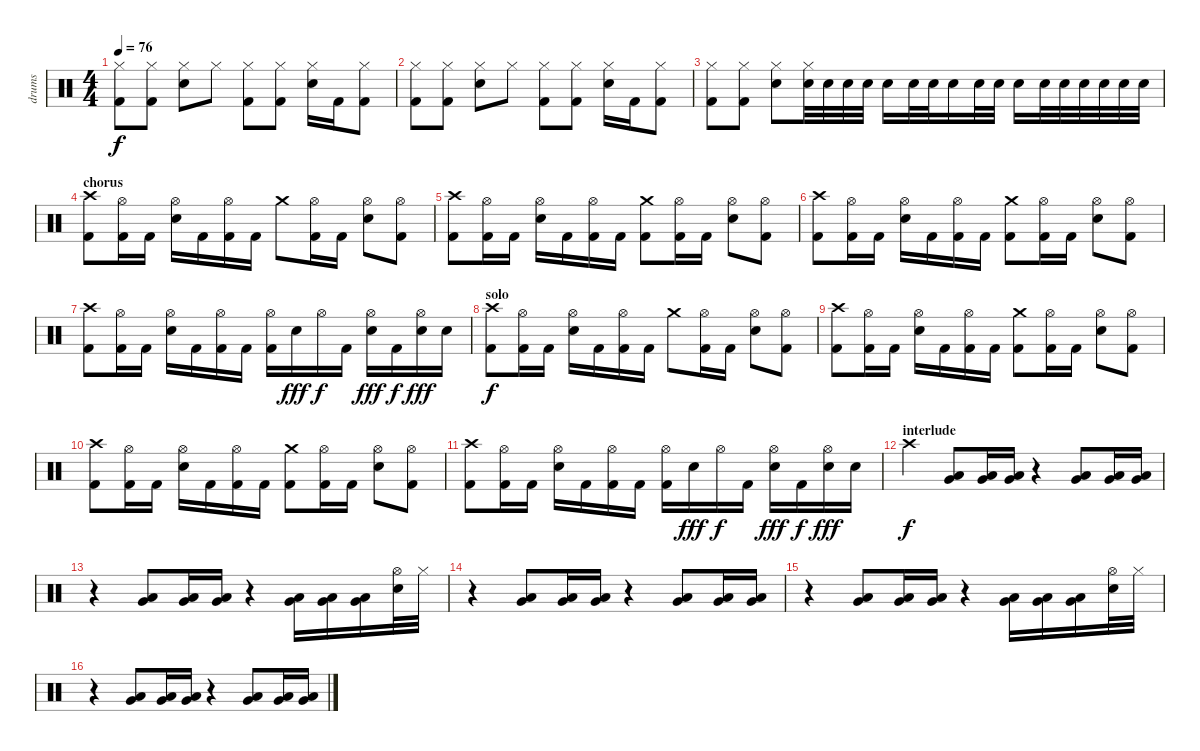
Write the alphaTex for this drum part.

\track ("drums" "drums") {instrument percussion}
\staff {score}
\articulation defaults
\ts (4 4)
\tempo 76
\clef neutral
\ks c
("Hi-Hat (closed)" "Kick (hit) 2").8{dy f} ("Hi-Hat (closed)" "Kick (hit) 2").8 ("Hi-Hat (closed)" "Electric Snare (hit)").8 "Hi-Hat (closed)".8 ("Hi-Hat (closed)" "Kick (hit) 2").8 ("Hi-Hat (closed)" "Kick (hit) 2").8 ("Hi-Hat (closed)" "Electric Snare (hit)").16 "Kick (hit) 2".16 ("Hi-Hat (closed)" "Kick (hit) 2").8 |
("Hi-Hat (closed)" "Kick (hit) 2").8 ("Hi-Hat (closed)" "Kick (hit) 2").8 ("Hi-Hat (closed)" "Electric Snare (hit)").8 "Hi-Hat (closed)".8 ("Hi-Hat (closed)" "Kick (hit) 2").8 ("Hi-Hat (closed)" "Kick (hit) 2").8 ("Hi-Hat (closed)" "Electric Snare (hit)").16 "Kick (hit) 2".16 ("Hi-Hat (closed)" "Kick (hit) 2").8 |
("Hi-Hat (closed)" "Kick (hit) 2").8 ("Hi-Hat (closed)" "Kick (hit) 2").8 ("Hi-Hat (closed)" "Electric Snare (hit)").8 ("Hi-Hat (closed)" "Electric Snare (hit)").32 "Electric Snare (hit)".32 "Electric Snare (hit)".32 "Electric Snare (hit)".32 "Electric Snare (hit)".16 "Electric Snare (hit)".32 "Electric Snare (hit)".32 "Electric Snare (hit)".16 "Electric Snare (hit)".32 "Electric Snare (hit)".32 "Electric Snare (hit)".16 "Electric Snare (hit)".32 "Electric Snare (hit)".32 "Electric Snare (hit)".32 "Electric Snare (hit)".32 "Electric Snare (hit)".32 "Electric Snare (hit)".32 |
\section ("" "chorus")
("Crash high (hit)" "Kick (hit) 2").8 ("Hi-Hat (open)" "Kick (hit) 2").16 "Kick (hit) 2".16 ("Hi-Hat (open)" "Electric Snare (hit)").16 "Kick (hit) 2".16 ("Hi-Hat (open)" "Kick (hit) 2").16 "Kick (hit) 2".16 "Crash medium (hit)".8 ("Hi-Hat (open)" "Kick (hit) 2").16 "Kick (hit) 2".16 ("Hi-Hat (open)" "Electric Snare (hit)").8 ("Hi-Hat (open)" "Kick (hit) 2").8 |
("Crash high (hit)" "Kick (hit) 2").8 ("Hi-Hat (open)" "Kick (hit) 2").16 "Kick (hit) 2".16 ("Hi-Hat (open)" "Electric Snare (hit)").16 "Kick (hit) 2".16 ("Hi-Hat (open)" "Kick (hit) 2").16 "Kick (hit) 2".16 ("Crash medium (hit)" "Kick (hit) 2").8 ("Hi-Hat (open)" "Kick (hit) 2").16 "Kick (hit) 2".16 ("Hi-Hat (open)" "Electric Snare (hit)").8 ("Hi-Hat (open)" "Kick (hit) 2").8 |
("Crash high (hit)" "Kick (hit) 2").8 ("Hi-Hat (open)" "Kick (hit) 2").16 "Kick (hit) 2".16 ("Hi-Hat (open)" "Electric Snare (hit)").16 "Kick (hit) 2".16 ("Hi-Hat (open)" "Kick (hit) 2").16 "Kick (hit) 2".16 ("Crash medium (hit)" "Kick (hit) 2").8 ("Hi-Hat (open)" "Kick (hit) 2").16 "Kick (hit) 2".16 ("Hi-Hat (open)" "Electric Snare (hit)").8 ("Hi-Hat (open)" "Kick (hit) 2").8 |
("Crash high (hit)" "Kick (hit) 2").8 ("Hi-Hat (open)" "Kick (hit) 2").16 "Kick (hit) 2".16 ("Hi-Hat (open)" "Electric Snare (hit)").16 "Kick (hit) 2".16 ("Hi-Hat (open)" "Kick (hit) 2").16 "Kick (hit) 2".16 ("Hi-Hat (open)" "Kick (hit) 2").16 "Electric Snare (hit)".16{dy fff} "Hi-Hat (open)".16{dy f} "Kick (hit) 2".16 ("Hi-Hat (open)" "Electric Snare (hit)").16{dy fff} "Kick (hit) 2".16{dy f} ("Hi-Hat (open)" "Electric Snare (hit)").16{dy fff} "Electric Snare (hit)".16 |
\section ("" "solo")
("Crash high (hit)" "Kick (hit) 2").8{dy f} ("Hi-Hat (open)" "Kick (hit) 2").16 "Kick (hit) 2".16 ("Hi-Hat (open)" "Electric Snare (hit)").16 "Kick (hit) 2".16 ("Hi-Hat (open)" "Kick (hit) 2").16 "Kick (hit) 2".16 "Crash medium (hit)".8 ("Hi-Hat (open)" "Kick (hit) 2").16 "Kick (hit) 2".16 ("Hi-Hat (open)" "Electric Snare (hit)").8 ("Hi-Hat (open)" "Kick (hit) 2").8 |
("Crash high (hit)" "Kick (hit) 2").8 ("Hi-Hat (open)" "Kick (hit) 2").16 "Kick (hit) 2".16 ("Hi-Hat (open)" "Electric Snare (hit)").16 "Kick (hit) 2".16 ("Hi-Hat (open)" "Kick (hit) 2").16 "Kick (hit) 2".16 ("Crash medium (hit)" "Kick (hit) 2").8 ("Hi-Hat (open)" "Kick (hit) 2").16 "Kick (hit) 2".16 ("Hi-Hat (open)" "Electric Snare (hit)").8 ("Hi-Hat (open)" "Kick (hit) 2").8 |
("Crash high (hit)" "Kick (hit) 2").8 ("Hi-Hat (open)" "Kick (hit) 2").16 "Kick (hit) 2".16 ("Hi-Hat (open)" "Electric Snare (hit)").16 "Kick (hit) 2".16 ("Hi-Hat (open)" "Kick (hit) 2").16 "Kick (hit) 2".16 ("Crash medium (hit)" "Kick (hit) 2").8 ("Hi-Hat (open)" "Kick (hit) 2").16 "Kick (hit) 2".16 ("Hi-Hat (open)" "Electric Snare (hit)").8 ("Hi-Hat (open)" "Kick (hit) 2").8 |
("Crash high (hit)" "Kick (hit) 2").8 ("Hi-Hat (open)" "Kick (hit) 2").16 "Kick (hit) 2".16 ("Hi-Hat (open)" "Electric Snare (hit)").16 "Kick (hit) 2".16 ("Hi-Hat (open)" "Kick (hit) 2").16 "Kick (hit) 2".16 ("Hi-Hat (open)" "Kick (hit) 2").16 "Electric Snare (hit)".16{dy fff} "Hi-Hat (open)".16{dy f} "Kick (hit) 2".16 ("Hi-Hat (open)" "Electric Snare (hit)").16{dy fff} "Kick (hit) 2".16{dy f} ("Hi-Hat (open)" "Electric Snare (hit)").16{dy fff} "Electric Snare (hit)".16 |
\section ("" "interlude")
"Crash high (hit)".4{dy f} ("Low Floor Tom (hit)" "Very Low Tom (hit)").8 ("Low Floor Tom (hit)" "Very Low Tom (hit)").16 ("Low Floor Tom (hit)" "Very Low Tom (hit)").16 r.4 ("Low Floor Tom (hit)" "Very Low Tom (hit)").8 ("Low Floor Tom (hit)" "Very Low Tom (hit)").16 ("Low Floor Tom (hit)" "Very Low Tom (hit)").16 |
r.4 ("Low Floor Tom (hit)" "Very Low Tom (hit)").8 ("Low Floor Tom (hit)" "Very Low Tom (hit)").16 ("Low Floor Tom (hit)" "Very Low Tom (hit)").16 r.4 ("Low Floor Tom (hit)" "Very Low Tom (hit)").16 ("Low Floor Tom (hit)" "Very Low Tom (hit)").16 ("Low Floor Tom (hit)" "Very Low Tom (hit)").16 ("Hi-Hat (open)" "Electric Snare (hit)").32 "Hi-Hat (closed)".32 |
r.4 ("Low Floor Tom (hit)" "Very Low Tom (hit)").8 ("Low Floor Tom (hit)" "Very Low Tom (hit)").16 ("Low Floor Tom (hit)" "Very Low Tom (hit)").16 r.4 ("Low Floor Tom (hit)" "Very Low Tom (hit)").8 ("Low Floor Tom (hit)" "Very Low Tom (hit)").16 ("Low Floor Tom (hit)" "Very Low Tom (hit)").16 |
r.4 ("Low Floor Tom (hit)" "Very Low Tom (hit)").8 ("Low Floor Tom (hit)" "Very Low Tom (hit)").16 ("Low Floor Tom (hit)" "Very Low Tom (hit)").16 r.4 ("Low Floor Tom (hit)" "Very Low Tom (hit)").16 ("Low Floor Tom (hit)" "Very Low Tom (hit)").16 ("Low Floor Tom (hit)" "Very Low Tom (hit)").16 ("Hi-Hat (open)" "Electric Snare (hit)").32 "Hi-Hat (closed)".32 |
r.4 ("Low Floor Tom (hit)" "Very Low Tom (hit)").8 ("Low Floor Tom (hit)" "Very Low Tom (hit)").16 ("Low Floor Tom (hit)" "Very Low Tom (hit)").16 r.4 ("Low Floor Tom (hit)" "Very Low Tom (hit)").8 ("Low Floor Tom (hit)" "Very Low Tom (hit)").16 ("Low Floor Tom (hit)" "Very Low Tom (hit)").16
